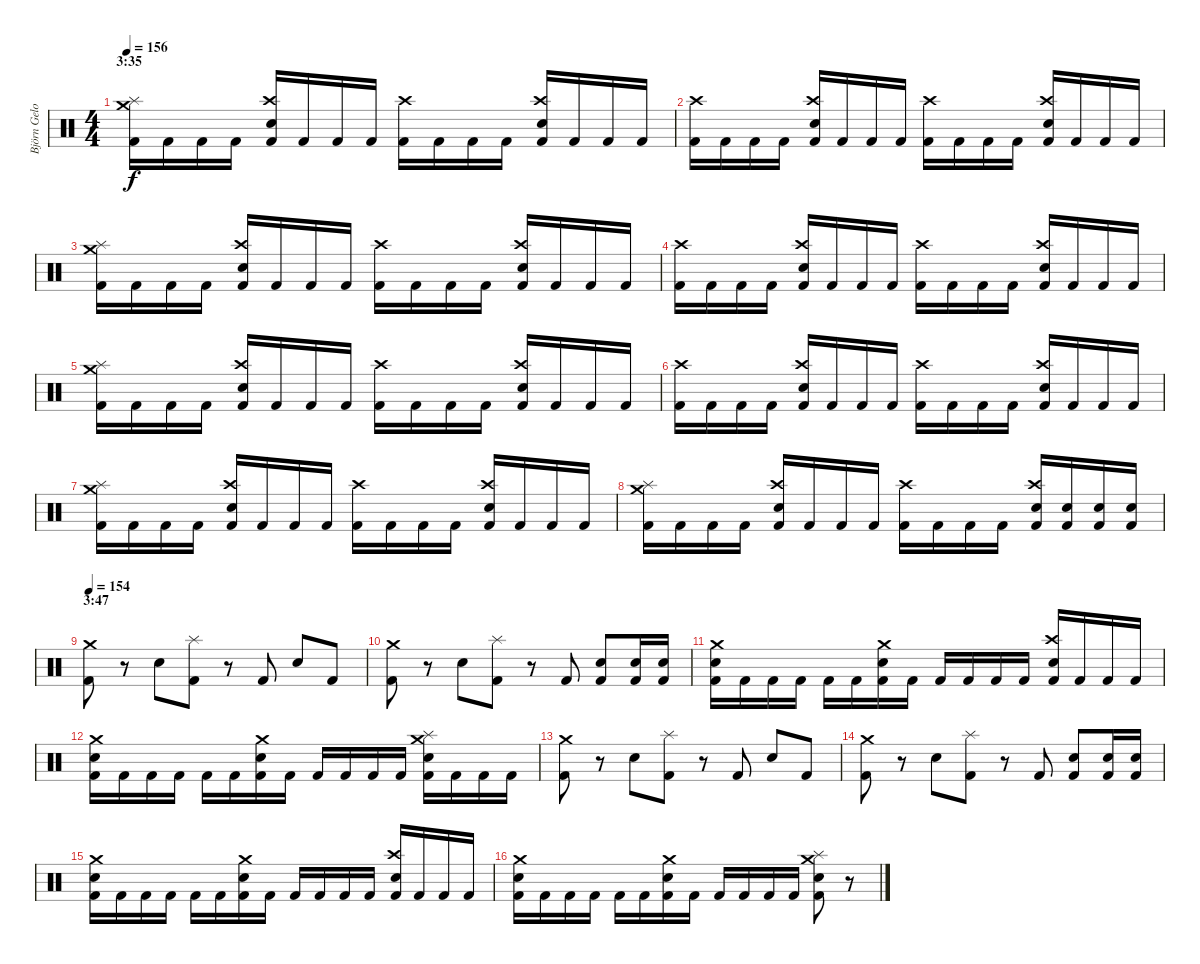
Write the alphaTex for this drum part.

\track ("Björn Gelotte" "Björn Gelo") {instrument percussion}
\staff {score}
\articulation defaults
\ts (4 4)
\section ("" "3:35")
\tempo 156
\clef neutral
\ks c
("Crash medium (hit)" "Splash (hit)" "Kick (hit) 2").16{dy f} "Kick (hit) 2".16 "Kick (hit) 2".16 "Kick (hit) 2".16 ("Crash high (hit)" "Electric Snare (hit)" "Kick (hit) 2").16 "Kick (hit) 2".16 "Kick (hit) 2".16 "Kick (hit) 2".16 ("Crash high (hit)" "Kick (hit) 2").16 "Kick (hit) 2".16 "Kick (hit) 2".16 "Kick (hit) 2".16 ("Crash high (hit)" "Electric Snare (hit)" "Kick (hit) 2").16 "Kick (hit) 2".16 "Kick (hit) 2".16 "Kick (hit) 2".16 |
("Crash high (hit)" "Kick (hit) 2").16 "Kick (hit) 2".16 "Kick (hit) 2".16 "Kick (hit) 2".16 ("Crash high (hit)" "Electric Snare (hit)" "Kick (hit) 2").16 "Kick (hit) 2".16 "Kick (hit) 2".16 "Kick (hit) 2".16 ("Crash high (hit)" "Kick (hit) 2").16 "Kick (hit) 2".16 "Kick (hit) 2".16 "Kick (hit) 2".16 ("Crash high (hit)" "Electric Snare (hit)" "Kick (hit) 2").16 "Kick (hit) 2".16 "Kick (hit) 2".16 "Kick (hit) 2".16 |
("Crash medium (hit)" "Splash (hit)" "Kick (hit) 2").16 "Kick (hit) 2".16 "Kick (hit) 2".16 "Kick (hit) 2".16 ("Crash high (hit)" "Electric Snare (hit)" "Kick (hit) 2").16 "Kick (hit) 2".16 "Kick (hit) 2".16 "Kick (hit) 2".16 ("Crash high (hit)" "Kick (hit) 2").16 "Kick (hit) 2".16 "Kick (hit) 2".16 "Kick (hit) 2".16 ("Crash high (hit)" "Electric Snare (hit)" "Kick (hit) 2").16 "Kick (hit) 2".16 "Kick (hit) 2".16 "Kick (hit) 2".16 |
("Crash high (hit)" "Kick (hit) 2").16 "Kick (hit) 2".16 "Kick (hit) 2".16 "Kick (hit) 2".16 ("Crash high (hit)" "Electric Snare (hit)" "Kick (hit) 2").16 "Kick (hit) 2".16 "Kick (hit) 2".16 "Kick (hit) 2".16 ("Crash high (hit)" "Kick (hit) 2").16 "Kick (hit) 2".16 "Kick (hit) 2".16 "Kick (hit) 2".16 ("Crash high (hit)" "Electric Snare (hit)" "Kick (hit) 2").16 "Kick (hit) 2".16 "Kick (hit) 2".16 "Kick (hit) 2".16 |
("Crash medium (hit)" "Splash (hit)" "Kick (hit) 2").16 "Kick (hit) 2".16 "Kick (hit) 2".16 "Kick (hit) 2".16 ("Crash high (hit)" "Electric Snare (hit)" "Kick (hit) 2").16 "Kick (hit) 2".16 "Kick (hit) 2".16 "Kick (hit) 2".16 ("Crash high (hit)" "Kick (hit) 2").16 "Kick (hit) 2".16 "Kick (hit) 2".16 "Kick (hit) 2".16 ("Crash high (hit)" "Electric Snare (hit)" "Kick (hit) 2").16 "Kick (hit) 2".16 "Kick (hit) 2".16 "Kick (hit) 2".16 |
("Crash high (hit)" "Kick (hit) 2").16 "Kick (hit) 2".16 "Kick (hit) 2".16 "Kick (hit) 2".16 ("Crash high (hit)" "Electric Snare (hit)" "Kick (hit) 2").16 "Kick (hit) 2".16 "Kick (hit) 2".16 "Kick (hit) 2".16 ("Crash high (hit)" "Kick (hit) 2").16 "Kick (hit) 2".16 "Kick (hit) 2".16 "Kick (hit) 2".16 ("Crash high (hit)" "Electric Snare (hit)" "Kick (hit) 2").16 "Kick (hit) 2".16 "Kick (hit) 2".16 "Kick (hit) 2".16 |
("Crash medium (hit)" "Splash (hit)" "Kick (hit) 2").16 "Kick (hit) 2".16 "Kick (hit) 2".16 "Kick (hit) 2".16 ("Crash high (hit)" "Electric Snare (hit)" "Kick (hit) 2").16 "Kick (hit) 2".16 "Kick (hit) 2".16 "Kick (hit) 2".16 ("Crash high (hit)" "Kick (hit) 2").16 "Kick (hit) 2".16 "Kick (hit) 2".16 "Kick (hit) 2".16 ("Crash high (hit)" "Electric Snare (hit)" "Kick (hit) 2").16 "Kick (hit) 2".16 "Kick (hit) 2".16 "Kick (hit) 2".16 |
("Crash medium (hit)" "Splash (hit)" "Kick (hit) 2").16 "Kick (hit) 2".16 "Kick (hit) 2".16 "Kick (hit) 2".16 ("Crash high (hit)" "Electric Snare (hit)" "Kick (hit) 2").16 "Kick (hit) 2".16 "Kick (hit) 2".16 "Kick (hit) 2".16 ("Crash high (hit)" "Kick (hit) 2").16 "Kick (hit) 2".16 "Kick (hit) 2".16 "Kick (hit) 2".16 ("Crash high (hit)" "Electric Snare (hit)" "Kick (hit) 2").16 ("Electric Snare (hit)" "Kick (hit) 2").16 ("Electric Snare (hit)" "Kick (hit) 2").16 ("Electric Snare (hit)" "Kick (hit) 2").16 |
\section ("" "3:47")
\tempo 154
("Crash medium (hit)" "Kick (hit) 2").8 r.8 "Electric Snare (hit)".8 ("Splash (hit)" "Kick (hit) 2").8 r.8 "Kick (hit) 2".8 "Electric Snare (hit)".8 "Kick (hit) 2".8 |
("Crash medium (hit)" "Kick (hit) 2").8 r.8 "Electric Snare (hit)".8 ("Splash (hit)" "Kick (hit) 2").8 r.8 "Kick (hit) 2".8 ("Electric Snare (hit)" "Kick (hit) 2").8 ("Electric Snare (hit)" "Kick (hit) 2").16 ("Electric Snare (hit)" "Kick (hit) 2").16 |
("Crash medium (hit)" "Electric Snare (hit)" "Kick (hit) 2").16 "Kick (hit) 2".16 "Kick (hit) 2".16 "Kick (hit) 2".16 "Kick (hit) 2".16 "Kick (hit) 2".16 ("Crash medium (hit)" "Electric Snare (hit)" "Kick (hit) 2").16 "Kick (hit) 2".16 "Kick (hit) 2".16 "Kick (hit) 2".16 "Kick (hit) 2".16 "Kick (hit) 2".16 ("Crash high (hit)" "Electric Snare (hit)" "Kick (hit) 2").16 "Kick (hit) 2".16 "Kick (hit) 2".16 "Kick (hit) 2".16 |
("Crash medium (hit)" "Electric Snare (hit)" "Kick (hit) 2").16 "Kick (hit) 2".16 "Kick (hit) 2".16 "Kick (hit) 2".16 "Kick (hit) 2".16 "Kick (hit) 2".16 ("Crash medium (hit)" "Electric Snare (hit)" "Kick (hit) 2").16 "Kick (hit) 2".16 "Kick (hit) 2".16 "Kick (hit) 2".16 "Kick (hit) 2".16 "Kick (hit) 2".16 ("Crash medium (hit)" "Splash (hit)" "Electric Snare (hit)" "Kick (hit) 2").16 "Kick (hit) 2".16 "Kick (hit) 2".16 "Kick (hit) 2".16 |
("Crash medium (hit)" "Kick (hit) 2").8 r.8 "Electric Snare (hit)".8 ("Splash (hit)" "Kick (hit) 2").8 r.8 "Kick (hit) 2".8 "Electric Snare (hit)".8 "Kick (hit) 2".8 |
("Crash medium (hit)" "Kick (hit) 2").8 r.8 "Electric Snare (hit)".8 ("Splash (hit)" "Kick (hit) 2").8 r.8 "Kick (hit) 2".8 ("Electric Snare (hit)" "Kick (hit) 2").8 ("Electric Snare (hit)" "Kick (hit) 2").16 ("Electric Snare (hit)" "Kick (hit) 2").16 |
("Crash medium (hit)" "Electric Snare (hit)" "Kick (hit) 2").16 "Kick (hit) 2".16 "Kick (hit) 2".16 "Kick (hit) 2".16 "Kick (hit) 2".16 "Kick (hit) 2".16 ("Crash medium (hit)" "Electric Snare (hit)" "Kick (hit) 2").16 "Kick (hit) 2".16 "Kick (hit) 2".16 "Kick (hit) 2".16 "Kick (hit) 2".16 "Kick (hit) 2".16 ("Crash high (hit)" "Electric Snare (hit)" "Kick (hit) 2").16 "Kick (hit) 2".16 "Kick (hit) 2".16 "Kick (hit) 2".16 |
("Crash medium (hit)" "Electric Snare (hit)" "Kick (hit) 2").16 "Kick (hit) 2".16 "Kick (hit) 2".16 "Kick (hit) 2".16 "Kick (hit) 2".16 "Kick (hit) 2".16 ("Crash medium (hit)" "Electric Snare (hit)" "Kick (hit) 2").16 "Kick (hit) 2".16 "Kick (hit) 2".16 "Kick (hit) 2".16 "Kick (hit) 2".16 "Kick (hit) 2".16 ("Crash medium (hit)" "Splash (hit)" "Electric Snare (hit)" "Kick (hit) 2").8 r.8
